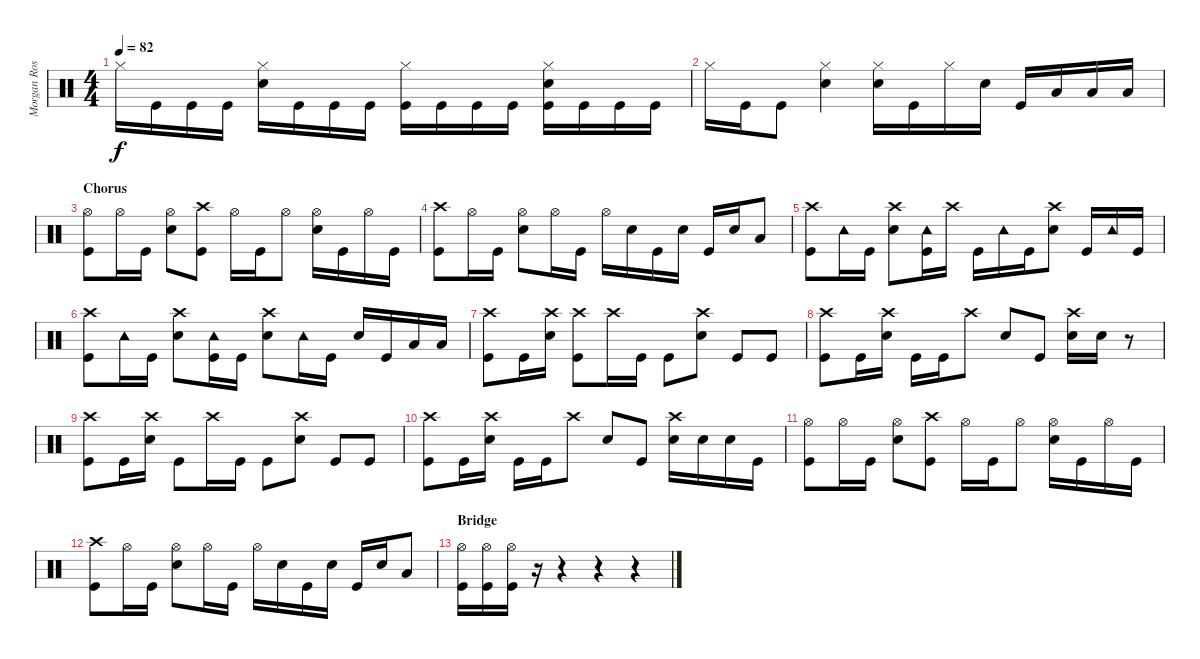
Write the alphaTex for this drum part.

\track ("Morgan Rose" "Morgan Ros") {instrument percussion}
\staff {score}
\articulation defaults
\ts (4 4)
\tempo 82
\clef neutral
\ks c "Hi-Hat (closed)".16{dy f} "Kick (hit)".16 "Kick (hit)".16 "Kick (hit)".16
("Hi-Hat (closed)" "Snare (hit) 2").16 "Kick (hit)".16 "Kick (hit)".16 "Kick (hit)".16 ("Hi-Hat (closed)" "Kick (hit)").16 "Kick (hit)".16 "Kick (hit)".16 "Kick (hit)".16 ("Hi-Hat (closed)" "Snare (hit) 2" "Kick (hit)").16 "Kick (hit)".16 "Kick (hit)".16 "Kick (hit)".16 |
"Hi-Hat (closed)".16 "Kick (hit)".16 "Kick (hit)".8 ("Hi-Hat (closed)" "Snare (hit) 2").4 ("Hi-Hat (closed)" "Snare (hit) 2").16 "Kick (hit)".16 "Hi-Hat (closed)".16 "Snare (hit) 2".16 "Kick (hit)".16 "Low Tom (hit)".16 "Low Tom (hit)".16 "Low Tom (hit)".16 |
\section ("" "Chorus")
("Hi-Hat (open)" "Kick (hit)").8 "Hi-Hat (open)".16 "Kick (hit)".16 ("Hi-Hat (open)" "Snare (hit) 2").8 ("Crash high (hit)" "Kick (hit)").8 "Hi-Hat (open)".16 "Kick (hit)".16 "Hi-Hat (open)".8 ("Hi-Hat (open)" "Snare (hit) 2").16 "Kick (hit)".16 "Hi-Hat (open)".16 "Kick (hit)".16 |
("Crash high (hit)" "Kick (hit)").8 "Hi-Hat (open)".16 "Kick (hit)".16 ("Hi-Hat (open)" "Snare (hit) 2").8 "Hi-Hat (open)".16 "Kick (hit)".16 "Hi-Hat (open)".16 "Snare (hit) 2".16 "Kick (hit)".16 "Snare (hit) 2".16 "Kick (hit)".16 "Snare (hit) 2".16 "Low Tom (hit)".8 |
("Crash high (hit)" "Kick (hit)").8 "Tambourine (hit)".16 "Kick (hit)".16 ("Crash high (hit)" "Snare (hit) 2").8 ("Tambourine (hit)" "Kick (hit)").16 "Crash high (hit)".16 "Kick (hit)".16 "Tambourine (hit)".16 "Kick (hit)".16 ("Crash high (hit)" "Snare (hit) 2").8 "Kick (hit)".16 "Tambourine (hit)".16 "Kick (hit)".16 |
("Crash high (hit)" "Kick (hit)").8 "Tambourine (hit)".16 "Kick (hit)".16 ("Crash high (hit)" "Snare (hit) 2").8 ("Tambourine (hit)" "Kick (hit)").16 "Kick (hit)".16 ("Crash high (hit)" "Snare (hit) 2").8 "Tambourine (hit)".16 "Kick (hit)".16 "Snare (hit) 2".16 "Kick (hit)".16 "Low Tom (hit)".16 "Low Tom (hit)".16 |
("Crash high (hit)" "Kick (hit)").8 "Kick (hit)".16 ("Crash high (hit)" "Snare (hit) 2").16 ("Crash high (hit)" "Kick (hit)").8 "Crash high (hit)".16 "Kick (hit)".16 "Kick (hit)".8 ("Crash high (hit)" "Snare (hit) 2").8 "Kick (hit)".8 "Kick (hit)".8 |
("Crash high (hit)" "Kick (hit)").8 "Kick (hit)".16 ("Crash high (hit)" "Snare (hit) 2").16 "Kick (hit)".16 "Kick (hit)".16 "Crash high (hit)".8 "Snare (hit) 2".8 "Kick (hit)".8 ("Crash high (hit)" "Snare (hit) 2").16 "Snare (hit) 2".16 r.8 |
("Crash high (hit)" "Kick (hit)").8 "Kick (hit)".16 ("Crash high (hit)" "Snare (hit) 2").16 "Kick (hit)".8 "Crash high (hit)".16 "Kick (hit)".16 "Kick (hit)".8 ("Crash high (hit)" "Snare (hit) 2").8 "Kick (hit)".8 "Kick (hit)".8 |
("Crash high (hit)" "Kick (hit)").8 "Kick (hit)".16 ("Crash high (hit)" "Snare (hit) 2").16 "Kick (hit)".16 "Kick (hit)".16 "Crash high (hit)".8 "Snare (hit) 2".8 "Kick (hit)".8 ("Crash high (hit)" "Snare (hit) 2").16 "Snare (hit) 2".16 "Snare (hit) 2".16 "Kick (hit)".16 |
("Hi-Hat (open)" "Kick (hit)").8 "Hi-Hat (open)".16 "Kick (hit)".16 ("Hi-Hat (open)" "Snare (hit) 2").8 ("Crash high (hit)" "Kick (hit)").8 "Hi-Hat (open)".16 "Kick (hit)".16 "Hi-Hat (open)".8 ("Hi-Hat (open)" "Snare (hit) 2").16 "Kick (hit)".16 "Hi-Hat (open)".16 "Kick (hit)".16 |
("Crash high (hit)" "Kick (hit)").8 "Hi-Hat (open)".16 "Kick (hit)".16 ("Hi-Hat (open)" "Snare (hit) 2").8 "Hi-Hat (open)".16 "Kick (hit)".16 "Hi-Hat (open)".16 "Snare (hit) 2".16 "Kick (hit)".16 "Snare (hit) 2".16 "Kick (hit)".16 "Snare (hit) 2".16 "Low Tom (hit)".8 |
\section ("" "Bridge")
("Hi-Hat (open)" "Kick (hit)").16 ("Hi-Hat (open)" "Kick (hit)").16 ("Hi-Hat (open)" "Kick (hit)").16 r.16 r.4 r.4 r.4
